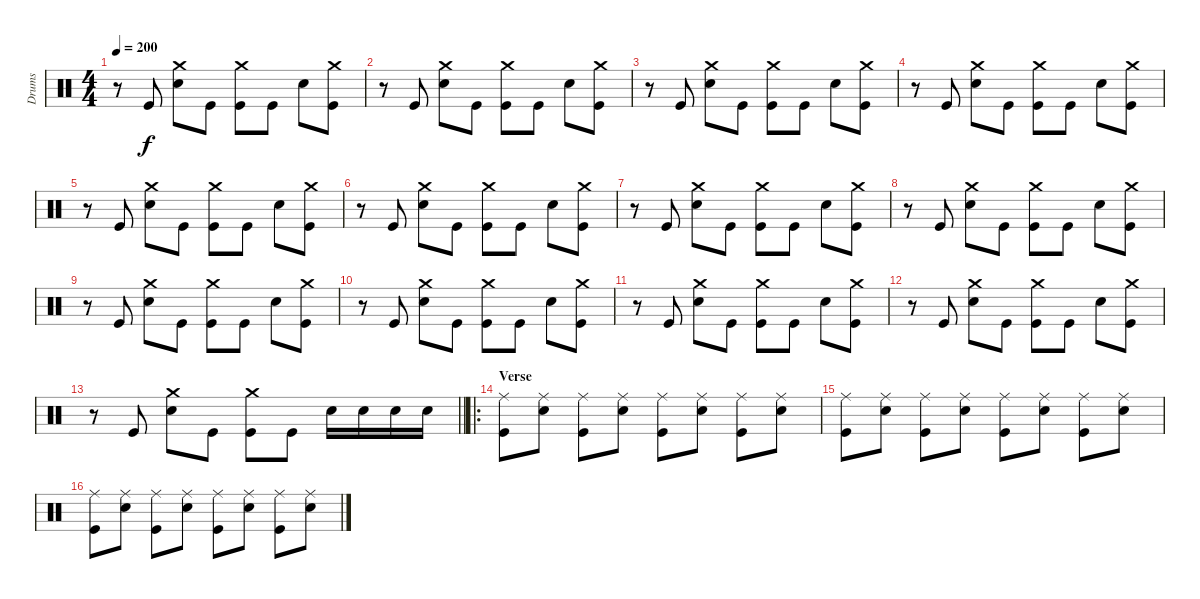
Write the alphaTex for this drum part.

\track ("Drums" "Drums") {instrument percussion}
\staff {score}
\articulation defaults
\ts (4 4)
\tempo 200
\clef neutral
\ks c
r.8{dy f} "Kick (hit)".8 ("Crash medium (hit)" "Snare (hit) 2").8 "Kick (hit)".8 ("Crash medium (hit)" "Kick (hit)").8 "Kick (hit)".8 "Snare (hit) 2".8 ("Crash medium (hit)" "Kick (hit)").8 |
r.8 "Kick (hit)".8 ("Crash medium (hit)" "Snare (hit) 2").8 "Kick (hit)".8 ("Crash medium (hit)" "Kick (hit)").8 "Kick (hit)".8 "Snare (hit) 2".8 ("Crash medium (hit)" "Kick (hit)").8 |
r.8 "Kick (hit)".8 ("Crash medium (hit)" "Snare (hit) 2").8 "Kick (hit)".8 ("Crash medium (hit)" "Kick (hit)").8 "Kick (hit)".8 "Snare (hit) 2".8 ("Crash medium (hit)" "Kick (hit)").8 |
r.8 "Kick (hit)".8 ("Crash medium (hit)" "Snare (hit) 2").8 "Kick (hit)".8 ("Crash medium (hit)" "Kick (hit)").8 "Kick (hit)".8 "Snare (hit) 2".8 ("Crash medium (hit)" "Kick (hit)").8 |
r.8 "Kick (hit)".8 ("Crash medium (hit)" "Snare (hit) 2").8 "Kick (hit)".8 ("Crash medium (hit)" "Kick (hit)").8 "Kick (hit)".8 "Snare (hit) 2".8 ("Crash medium (hit)" "Kick (hit)").8 |
r.8 "Kick (hit)".8 ("Crash medium (hit)" "Snare (hit) 2").8 "Kick (hit)".8 ("Crash medium (hit)" "Kick (hit)").8 "Kick (hit)".8 "Snare (hit) 2".8 ("Crash medium (hit)" "Kick (hit)").8 |
r.8 "Kick (hit)".8 ("Crash medium (hit)" "Snare (hit) 2").8 "Kick (hit)".8 ("Crash medium (hit)" "Kick (hit)").8 "Kick (hit)".8 "Snare (hit) 2".8 ("Crash medium (hit)" "Kick (hit)").8 |
r.8 "Kick (hit)".8 ("Crash medium (hit)" "Snare (hit) 2").8 "Kick (hit)".8 ("Crash medium (hit)" "Kick (hit)").8 "Kick (hit)".8 "Snare (hit) 2".8 ("Crash medium (hit)" "Kick (hit)").8 |
r.8 "Kick (hit)".8 ("Crash medium (hit)" "Snare (hit) 2").8 "Kick (hit)".8 ("Crash medium (hit)" "Kick (hit)").8 "Kick (hit)".8 "Snare (hit) 2".8 ("Crash medium (hit)" "Kick (hit)").8 |
r.8 "Kick (hit)".8 ("Crash medium (hit)" "Snare (hit) 2").8 "Kick (hit)".8 ("Crash medium (hit)" "Kick (hit)").8 "Kick (hit)".8 "Snare (hit) 2".8 ("Crash medium (hit)" "Kick (hit)").8 |
r.8 "Kick (hit)".8 ("Crash medium (hit)" "Snare (hit) 2").8 "Kick (hit)".8 ("Crash medium (hit)" "Kick (hit)").8 "Kick (hit)".8 "Snare (hit) 2".8 ("Crash medium (hit)" "Kick (hit)").8 |
r.8 "Kick (hit)".8 ("Crash medium (hit)" "Snare (hit) 2").8 "Kick (hit)".8 ("Crash medium (hit)" "Kick (hit)").8 "Kick (hit)".8 "Snare (hit) 2".8 ("Crash medium (hit)" "Kick (hit)").8 |
\barLineRight lightlight
r.8 "Kick (hit)".8 ("Crash medium (hit)" "Snare (hit) 2").8 "Kick (hit)".8 ("Crash medium (hit)" "Kick (hit)").8 "Kick (hit)".8 "Snare (hit) 2".16 "Snare (hit) 2".16 "Snare (hit) 2".16 "Snare (hit) 2".16 |
\ro
\section ("" "Verse")
("Ride (middle)" "Kick (hit)").8 ("Ride (middle)" "Snare (hit) 2").8 ("Ride (middle)" "Kick (hit)").8 ("Ride (middle)" "Snare (hit) 2").8 ("Ride (middle)" "Kick (hit)").8 ("Ride (middle)" "Snare (hit) 2").8 ("Ride (middle)" "Kick (hit)").8 ("Ride (middle)" "Snare (hit) 2").8 |
("Ride (middle)" "Kick (hit)").8 ("Ride (middle)" "Snare (hit) 2").8 ("Ride (middle)" "Kick (hit)").8 ("Ride (middle)" "Snare (hit) 2").8 ("Ride (middle)" "Kick (hit)").8 ("Ride (middle)" "Snare (hit) 2").8 ("Ride (middle)" "Kick (hit)").8 ("Ride (middle)" "Snare (hit) 2").8 |
("Ride (middle)" "Kick (hit)").8 ("Ride (middle)" "Snare (hit) 2").8 ("Ride (middle)" "Kick (hit)").8 ("Ride (middle)" "Snare (hit) 2").8 ("Ride (middle)" "Kick (hit)").8 ("Ride (middle)" "Snare (hit) 2").8 ("Ride (middle)" "Kick (hit)").8 ("Ride (middle)" "Snare (hit) 2").8
